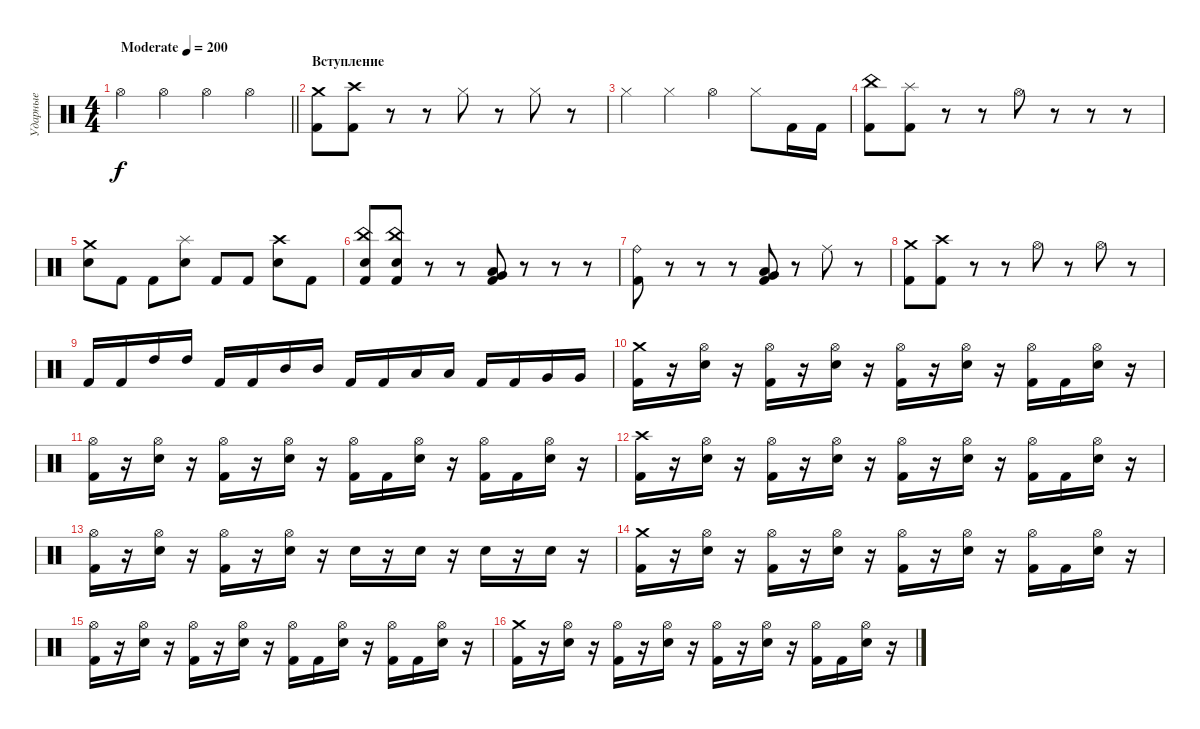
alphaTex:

\track ("Ударные" "Ударные") {instrument percussion}
\staff {score}
\articulation defaults
\ts (4 4)
\tempo (200 "Moderate")
\clef neutral
\barLineRight lightlight
\ks c "Hi-Hat (open)".4{dy f} "Hi-Hat (open)".4 "Hi-Hat (open)".4 "Hi-Hat (open)".4
|
\section ("" "Вступление")
("Kick (hit) 2" "Crash medium (hit)").8 ("Kick (hit) 2" "Crash high (hit)").8 r.8 r.8 "Hi-Hat (closed)".8 r.8 "Hi-Hat (closed)".8 r.8 |
"Hi-Hat (closed)".4 "Hi-Hat (closed)".4 "Hi-Hat (open)".4 "Hi-Hat (closed)".8 "Kick (hit) 2".16 "Kick (hit) 2".16 |
("Kick (hit) 2" "China (hit)").8 ("Kick (hit) 2" "Splash (hit)").8 r.8 r.8 "Hi-Hat (open)".8 r.8 r.8 r.8 |
("Electric Snare (hit)" "Crash medium (hit)").8 "Kick (hit) 2".8 "Kick (hit) 2".8 ("Electric Snare (hit)" "Splash (hit)").8 "Kick (hit) 2".8 "Kick (hit) 2".8 ("Electric Snare (hit)" "Crash high (hit)").8 "Kick (hit) 2".8 |
("Kick (hit) 2" "Electric Snare (hit)" "China (hit)").8 ("Kick (hit) 2" "Electric Snare (hit)" "China (hit)").8 r.8 r.8 ("Kick (hit) 2" "Low Floor Tom (hit)" "Very Low Tom (hit)").8 r.8 r.8 r.8 |
("Kick (hit) 2" "Ride (bell)").8 r.8 r.8 r.8 ("Kick (hit) 2" "Low Floor Tom (hit)" "Very Low Tom (hit)").8 r.8 "Ride (middle)".8 r.8 |
("Kick (hit) 2" "Crash medium (hit)").8 ("Kick (hit) 2" "Crash high (hit)").8 r.8 r.8 "Hi-Hat (open)".8 r.8 "Hi-Hat (open)".8 r.8 |
"Kick (hit) 2".16 "Kick (hit) 2".16 "High Tom (hit)".16 "High Tom (hit)".16 "Kick (hit) 2".16 "Kick (hit) 2".16 "Mid Tom (hit)".16 "Mid Tom (hit)".16 "Kick (hit) 2".16 "Kick (hit) 2".16 "Low Tom (hit)".16 "Low Tom (hit)".16 "Kick (hit) 2".16 "Kick (hit) 2".16 "Very Low Tom (hit)".16 "Very Low Tom (hit)".16 |
("Kick (hit) 2" "Crash medium (hit)").16 r.16 ("Electric Snare (hit)" "Hi-Hat (open)").16 r.16 ("Kick (hit) 2" "Hi-Hat (open)").16 r.16 ("Electric Snare (hit)" "Hi-Hat (open)").16 r.16 ("Kick (hit) 2" "Hi-Hat (open)").16 r.16 ("Electric Snare (hit)" "Hi-Hat (open)").16 r.16 ("Kick (hit) 2" "Hi-Hat (open)").16 "Kick (hit) 2".16 ("Electric Snare (hit)" "Hi-Hat (open)").16 r.16 |
("Kick (hit) 2" "Hi-Hat (open)").16 r.16 ("Electric Snare (hit)" "Hi-Hat (open)").16 r.16 ("Kick (hit) 2" "Hi-Hat (open)").16 r.16 ("Electric Snare (hit)" "Hi-Hat (open)").16 r.16 ("Kick (hit) 2" "Hi-Hat (open)").16 "Kick (hit) 2".16 ("Electric Snare (hit)" "Hi-Hat (open)").16 r.16 ("Kick (hit) 2" "Hi-Hat (open)").16 "Kick (hit) 2".16 ("Electric Snare (hit)" "Hi-Hat (open)").16 r.16 |
("Kick (hit) 2" "Crash high (hit)").16 r.16 ("Electric Snare (hit)" "Hi-Hat (open)").16 r.16 ("Kick (hit) 2" "Hi-Hat (open)").16 r.16 ("Electric Snare (hit)" "Hi-Hat (open)").16 r.16 ("Kick (hit) 2" "Hi-Hat (open)").16 r.16 ("Electric Snare (hit)" "Hi-Hat (open)").16 r.16 ("Kick (hit) 2" "Hi-Hat (open)").16 "Kick (hit) 2".16 ("Electric Snare (hit)" "Hi-Hat (open)").16 r.16 |
("Kick (hit) 2" "Hi-Hat (open)").16 r.16 ("Electric Snare (hit)" "Hi-Hat (open)").16 r.16 ("Kick (hit) 2" "Hi-Hat (open)").16 r.16 ("Electric Snare (hit)" "Hi-Hat (open)").16 r.16 "Electric Snare (hit)".16 r.16 "Electric Snare (hit)".16 r.16 "Electric Snare (hit)".16 r.16 "Electric Snare (hit)".16 r.16 |
("Kick (hit) 2" "Crash medium (hit)").16 r.16 ("Electric Snare (hit)" "Hi-Hat (open)").16 r.16 ("Kick (hit) 2" "Hi-Hat (open)").16 r.16 ("Electric Snare (hit)" "Hi-Hat (open)").16 r.16 ("Kick (hit) 2" "Hi-Hat (open)").16 r.16 ("Electric Snare (hit)" "Hi-Hat (open)").16 r.16 ("Kick (hit) 2" "Hi-Hat (open)").16 "Kick (hit) 2".16 ("Electric Snare (hit)" "Hi-Hat (open)").16 r.16 |
("Kick (hit) 2" "Hi-Hat (open)").16 r.16 ("Electric Snare (hit)" "Hi-Hat (open)").16 r.16 ("Kick (hit) 2" "Hi-Hat (open)").16 r.16 ("Electric Snare (hit)" "Hi-Hat (open)").16 r.16 ("Kick (hit) 2" "Hi-Hat (open)").16 "Kick (hit) 2".16 ("Electric Snare (hit)" "Hi-Hat (open)").16 r.16 ("Kick (hit) 2" "Hi-Hat (open)").16 "Kick (hit) 2".16 ("Electric Snare (hit)" "Hi-Hat (open)").16 r.16 |
("Kick (hit) 2" "Crash medium (hit)").16 r.16 ("Electric Snare (hit)" "Hi-Hat (open)").16 r.16 ("Kick (hit) 2" "Hi-Hat (open)").16 r.16 ("Electric Snare (hit)" "Hi-Hat (open)").16 r.16 ("Kick (hit) 2" "Hi-Hat (open)").16 r.16 ("Electric Snare (hit)" "Hi-Hat (open)").16 r.16 ("Kick (hit) 2" "Hi-Hat (open)").16 "Kick (hit) 2".16 ("Electric Snare (hit)" "Hi-Hat (open)").16 r.16
